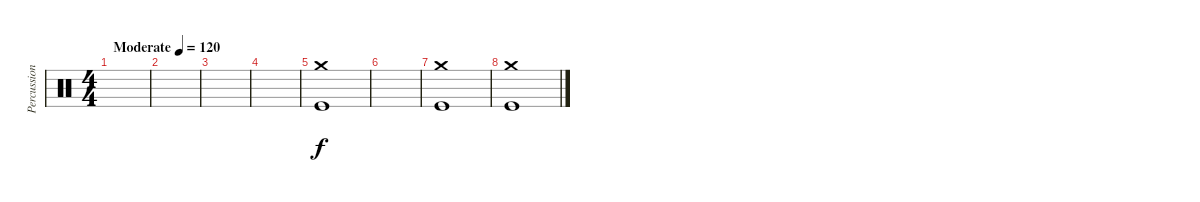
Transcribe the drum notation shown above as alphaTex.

\track ("Percussion" "Percussion") {instrument percussion}
\staff {score}
\articulation defaults
\ts (4 4)
\tempo (120 "Moderate")
\clef neutral
\ks c
|
|
|
|
("Crash medium (hit)" "Kick (hit)").1 |
|
("Crash medium (hit)" "Kick (hit)").1 |
("Crash medium (hit)" "Kick (hit)").1
